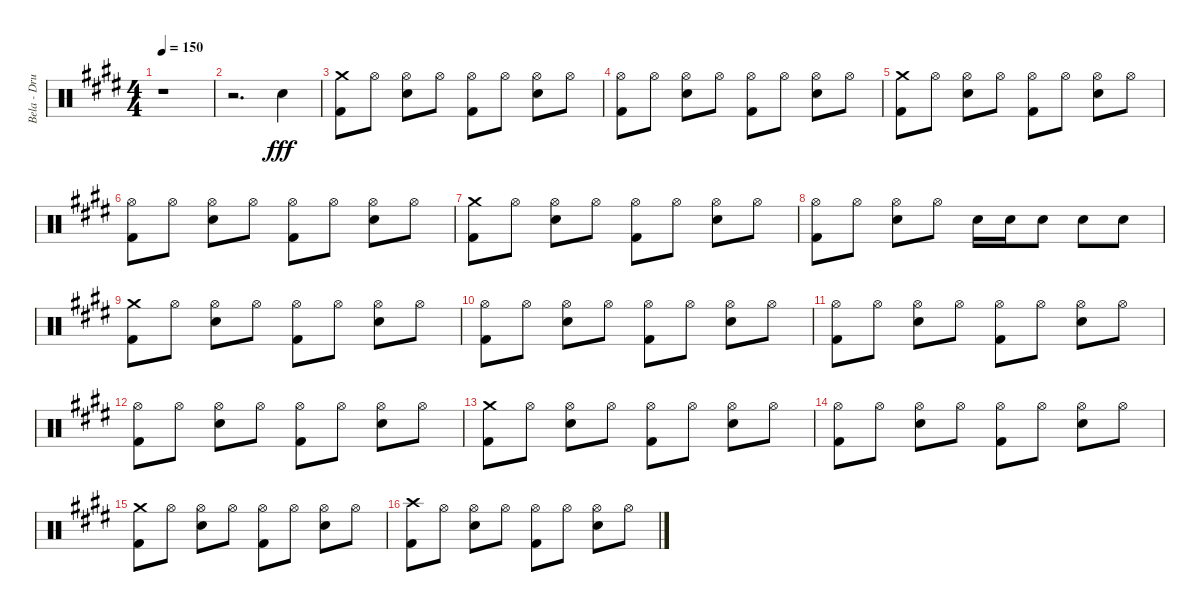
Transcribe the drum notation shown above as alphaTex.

\track ("Bela - Drums" "Bela - Dru") {instrument percussion}
\staff {score}
\articulation defaults
\ts (4 4)
\tempo 150
\clef neutral
\ks e
r.1{dy fff} |
r.2{d} "Electric Snare (hit)".4 |
("Crash medium (hit)" "Kick (hit) 2").8 "Hi-Hat (open)".8 ("Hi-Hat (open)" "Electric Snare (hit)").8 "Hi-Hat (open)".8 ("Hi-Hat (open)" "Kick (hit) 2").8 "Hi-Hat (open)".8 ("Hi-Hat (open)" "Electric Snare (hit)").8 "Hi-Hat (open)".8 |
("Hi-Hat (open)" "Kick (hit) 2").8 "Hi-Hat (open)".8 ("Hi-Hat (open)" "Electric Snare (hit)").8 "Hi-Hat (open)".8 ("Hi-Hat (open)" "Kick (hit) 2").8 "Hi-Hat (open)".8 ("Hi-Hat (open)" "Electric Snare (hit)").8 "Hi-Hat (open)".8 |
("Crash medium (hit)" "Kick (hit) 2").8 "Hi-Hat (open)".8 ("Hi-Hat (open)" "Electric Snare (hit)").8 "Hi-Hat (open)".8 ("Hi-Hat (open)" "Kick (hit) 2").8 "Hi-Hat (open)".8 ("Hi-Hat (open)" "Electric Snare (hit)").8 "Hi-Hat (open)".8 |
("Hi-Hat (open)" "Kick (hit) 2").8 "Hi-Hat (open)".8 ("Hi-Hat (open)" "Electric Snare (hit)").8 "Hi-Hat (open)".8 ("Hi-Hat (open)" "Kick (hit) 2").8 "Hi-Hat (open)".8 ("Hi-Hat (open)" "Electric Snare (hit)").8 "Hi-Hat (open)".8 |
("Crash medium (hit)" "Kick (hit) 2").8 "Hi-Hat (open)".8 ("Hi-Hat (open)" "Electric Snare (hit)").8 "Hi-Hat (open)".8 ("Hi-Hat (open)" "Kick (hit) 2").8 "Hi-Hat (open)".8 ("Hi-Hat (open)" "Electric Snare (hit)").8 "Hi-Hat (open)".8 |
("Hi-Hat (open)" "Kick (hit) 2").8 "Hi-Hat (open)".8 ("Hi-Hat (open)" "Electric Snare (hit)").8 "Hi-Hat (open)".8 "Electric Snare (hit)".16 "Electric Snare (hit)".16 "Electric Snare (hit)".8 "Electric Snare (hit)".8 "Electric Snare (hit)".8 |
("Crash medium (hit)" "Kick (hit) 2").8 "Hi-Hat (open)".8 ("Hi-Hat (open)" "Electric Snare (hit)").8 "Hi-Hat (open)".8 ("Hi-Hat (open)" "Kick (hit) 2").8 "Hi-Hat (open)".8 ("Hi-Hat (open)" "Electric Snare (hit)").8 "Hi-Hat (open)".8 |
("Hi-Hat (open)" "Kick (hit) 2").8 "Hi-Hat (open)".8 ("Hi-Hat (open)" "Electric Snare (hit)").8 "Hi-Hat (open)".8 ("Hi-Hat (open)" "Kick (hit) 2").8 "Hi-Hat (open)".8 ("Hi-Hat (open)" "Electric Snare (hit)").8 "Hi-Hat (open)".8 |
("Hi-Hat (open)" "Kick (hit) 2").8 "Hi-Hat (open)".8 ("Hi-Hat (open)" "Electric Snare (hit)").8 "Hi-Hat (open)".8 ("Hi-Hat (open)" "Kick (hit) 2").8 "Hi-Hat (open)".8 ("Hi-Hat (open)" "Electric Snare (hit)").8 "Hi-Hat (open)".8 |
("Hi-Hat (open)" "Kick (hit) 2").8 "Hi-Hat (open)".8 ("Hi-Hat (open)" "Electric Snare (hit)").8 "Hi-Hat (open)".8 ("Hi-Hat (open)" "Kick (hit) 2").8 "Hi-Hat (open)".8 ("Hi-Hat (open)" "Electric Snare (hit)").8 "Hi-Hat (open)".8 |
("Crash medium (hit)" "Kick (hit) 2").8 "Hi-Hat (open)".8 ("Hi-Hat (open)" "Electric Snare (hit)").8 "Hi-Hat (open)".8 ("Hi-Hat (open)" "Kick (hit) 2").8 "Hi-Hat (open)".8 ("Hi-Hat (open)" "Electric Snare (hit)").8 "Hi-Hat (open)".8 |
("Hi-Hat (open)" "Kick (hit) 2").8 "Hi-Hat (open)".8 ("Hi-Hat (open)" "Electric Snare (hit)").8 "Hi-Hat (open)".8 ("Hi-Hat (open)" "Kick (hit) 2").8 "Hi-Hat (open)".8 ("Hi-Hat (open)" "Electric Snare (hit)").8 "Hi-Hat (open)".8 |
("Crash medium (hit)" "Kick (hit) 2").8 "Hi-Hat (open)".8 ("Hi-Hat (open)" "Electric Snare (hit)").8 "Hi-Hat (open)".8 ("Hi-Hat (open)" "Kick (hit) 2").8 "Hi-Hat (open)".8 ("Hi-Hat (open)" "Electric Snare (hit)").8 "Hi-Hat (open)".8 |
("Crash high (hit)" "Kick (hit) 2").8 "Hi-Hat (open)".8 ("Hi-Hat (open)" "Electric Snare (hit)").8 "Hi-Hat (open)".8 ("Hi-Hat (open)" "Kick (hit) 2").8 "Hi-Hat (open)".8 ("Hi-Hat (open)" "Electric Snare (hit)").8 "Hi-Hat (open)".8
